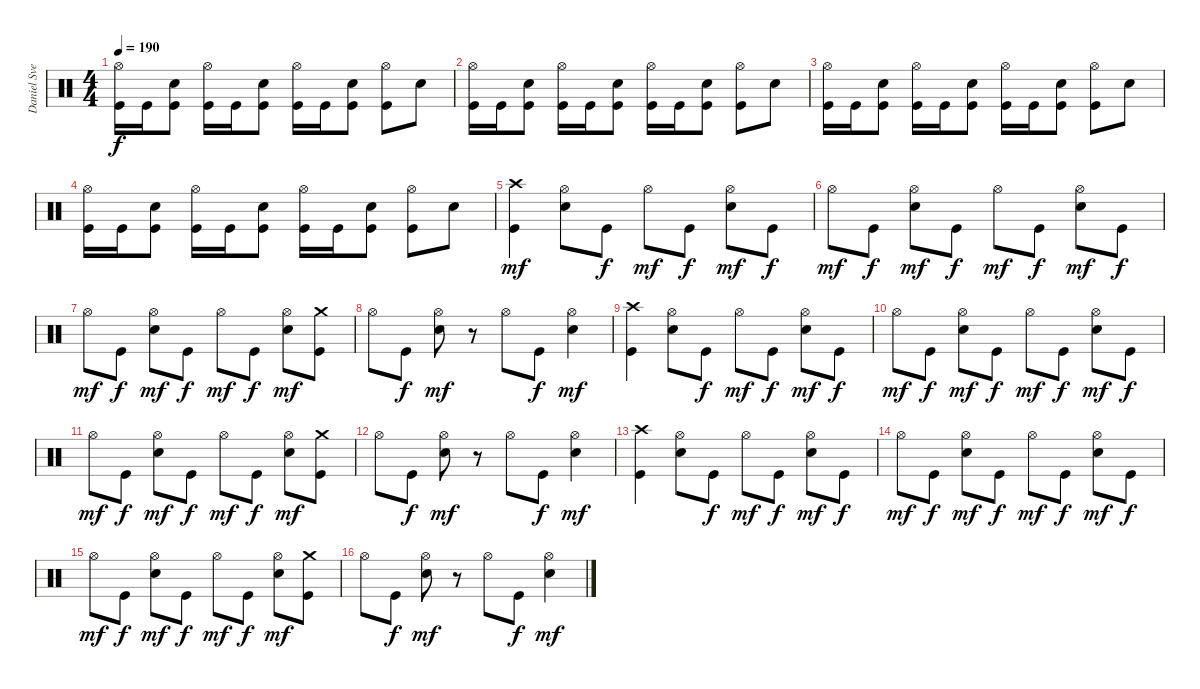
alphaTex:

\track ("Daniel Svensson" "Daniel Sve") {instrument percussion}
\staff {score}
\articulation defaults
\ts (4 4)
\tempo 190
\clef neutral
\ks c
("Hi-Hat (open)" "Kick (hit)").16{dy f} "Kick (hit)".16 ("Electric Snare (hit)" "Kick (hit)").8 ("Hi-Hat (open)" "Kick (hit)").16 "Kick (hit)".16 ("Electric Snare (hit)" "Kick (hit)").8 ("Hi-Hat (open)" "Kick (hit)").16 "Kick (hit)".16 ("Electric Snare (hit)" "Kick (hit)").8 ("Hi-Hat (open)" "Kick (hit)").8 "Electric Snare (hit)".8 |
("Hi-Hat (open)" "Kick (hit)").16 "Kick (hit)".16 ("Electric Snare (hit)" "Kick (hit)").8 ("Hi-Hat (open)" "Kick (hit)").16 "Kick (hit)".16 ("Electric Snare (hit)" "Kick (hit)").8 ("Hi-Hat (open)" "Kick (hit)").16 "Kick (hit)".16 ("Electric Snare (hit)" "Kick (hit)").8 ("Hi-Hat (open)" "Kick (hit)").8 "Electric Snare (hit)".8 |
("Hi-Hat (open)" "Kick (hit)").16 "Kick (hit)".16 ("Electric Snare (hit)" "Kick (hit)").8 ("Hi-Hat (open)" "Kick (hit)").16 "Kick (hit)".16 ("Electric Snare (hit)" "Kick (hit)").8 ("Hi-Hat (open)" "Kick (hit)").16 "Kick (hit)".16 ("Electric Snare (hit)" "Kick (hit)").8 ("Hi-Hat (open)" "Kick (hit)").8 "Electric Snare (hit)".8 |
("Hi-Hat (open)" "Kick (hit)").16 "Kick (hit)".16 ("Electric Snare (hit)" "Kick (hit)").8 ("Hi-Hat (open)" "Kick (hit)").16 "Kick (hit)".16 ("Electric Snare (hit)" "Kick (hit)").8 ("Hi-Hat (open)" "Kick (hit)").16 "Kick (hit)".16 ("Electric Snare (hit)" "Kick (hit)").8 ("Hi-Hat (open)" "Kick (hit)").8 "Electric Snare (hit)".8 |
("Kick (hit)" "Crash high (hit)").4{dy mf} ("Electric Snare (hit)" "Hi-Hat (open)").8 "Kick (hit)".8{dy f} "Hi-Hat (open)".8{dy mf} "Kick (hit)".8{dy f} ("Electric Snare (hit)" "Hi-Hat (open)").8{dy mf} "Kick (hit)".8{dy f} |
"Hi-Hat (open)".8{dy mf} "Kick (hit)".8{dy f} ("Electric Snare (hit)" "Hi-Hat (open)").8{dy mf} "Kick (hit)".8{dy f} "Hi-Hat (open)".8{dy mf} "Kick (hit)".8{dy f} ("Electric Snare (hit)" "Hi-Hat (open)").8{dy mf} "Kick (hit)".8{dy f} |
"Hi-Hat (open)".8{dy mf} "Kick (hit)".8{dy f} ("Electric Snare (hit)" "Hi-Hat (open)").8{dy mf} "Kick (hit)".8{dy f} "Hi-Hat (open)".8{dy mf} "Kick (hit)".8{dy f} ("Electric Snare (hit)" "Hi-Hat (open)").8{dy mf} ("Kick (hit)" "Crash medium (hit)").8 |
"Hi-Hat (open)".8 "Kick (hit)".8{dy f} ("Electric Snare (hit)" "Hi-Hat (open)").8{dy mf} r.8 "Hi-Hat (open)".8 "Kick (hit)".8{dy f} ("Electric Snare (hit)" "Hi-Hat (open)").4{dy mf} |
("Kick (hit)" "Crash high (hit)").4 ("Electric Snare (hit)" "Hi-Hat (open)").8 "Kick (hit)".8{dy f} "Hi-Hat (open)".8{dy mf} "Kick (hit)".8{dy f} ("Electric Snare (hit)" "Hi-Hat (open)").8{dy mf} "Kick (hit)".8{dy f} |
"Hi-Hat (open)".8{dy mf} "Kick (hit)".8{dy f} ("Electric Snare (hit)" "Hi-Hat (open)").8{dy mf} "Kick (hit)".8{dy f} "Hi-Hat (open)".8{dy mf} "Kick (hit)".8{dy f} ("Electric Snare (hit)" "Hi-Hat (open)").8{dy mf} "Kick (hit)".8{dy f} |
"Hi-Hat (open)".8{dy mf} "Kick (hit)".8{dy f} ("Electric Snare (hit)" "Hi-Hat (open)").8{dy mf} "Kick (hit)".8{dy f} "Hi-Hat (open)".8{dy mf} "Kick (hit)".8{dy f} ("Electric Snare (hit)" "Hi-Hat (open)").8{dy mf} ("Kick (hit)" "Crash medium (hit)").8 |
"Hi-Hat (open)".8 "Kick (hit)".8{dy f} ("Electric Snare (hit)" "Hi-Hat (open)").8{dy mf} r.8 "Hi-Hat (open)".8 "Kick (hit)".8{dy f} ("Electric Snare (hit)" "Hi-Hat (open)").4{dy mf} |
("Kick (hit)" "Crash high (hit)").4 ("Electric Snare (hit)" "Hi-Hat (open)").8 "Kick (hit)".8{dy f} "Hi-Hat (open)".8{dy mf} "Kick (hit)".8{dy f} ("Electric Snare (hit)" "Hi-Hat (open)").8{dy mf} "Kick (hit)".8{dy f} |
"Hi-Hat (open)".8{dy mf} "Kick (hit)".8{dy f} ("Electric Snare (hit)" "Hi-Hat (open)").8{dy mf} "Kick (hit)".8{dy f} "Hi-Hat (open)".8{dy mf} "Kick (hit)".8{dy f} ("Electric Snare (hit)" "Hi-Hat (open)").8{dy mf} "Kick (hit)".8{dy f} |
"Hi-Hat (open)".8{dy mf} "Kick (hit)".8{dy f} ("Electric Snare (hit)" "Hi-Hat (open)").8{dy mf} "Kick (hit)".8{dy f} "Hi-Hat (open)".8{dy mf} "Kick (hit)".8{dy f} ("Electric Snare (hit)" "Hi-Hat (open)").8{dy mf} ("Kick (hit)" "Crash medium (hit)").8 |
"Hi-Hat (open)".8 "Kick (hit)".8{dy f} ("Electric Snare (hit)" "Hi-Hat (open)").8{dy mf} r.8 "Hi-Hat (open)".8 "Kick (hit)".8{dy f} ("Electric Snare (hit)" "Hi-Hat (open)").4{dy mf}
